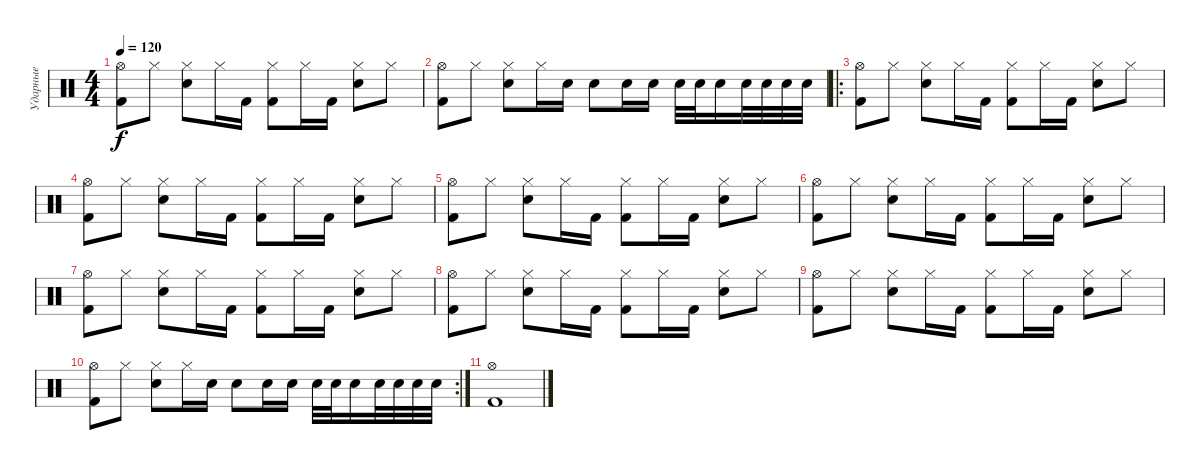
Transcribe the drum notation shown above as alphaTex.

\track ("Ударные" "Ударные") {instrument percussion}
\staff {score}
\articulation defaults
\ts (4 4)
\tempo 120
\clef neutral
\ks aminor
("Hi-Hat (open)" "Kick (hit) 2").8{dy f} "Hi-Hat (closed)".8 ("Hi-Hat (closed)" "Electric Snare (hit)").8 "Hi-Hat (closed)".16 "Kick (hit) 2".16 ("Hi-Hat (closed)" "Kick (hit) 2").8 "Hi-Hat (closed)".16 "Kick (hit) 2".16 ("Hi-Hat (closed)" "Electric Snare (hit)").8 "Hi-Hat (closed)".8 |
("Hi-Hat (open)" "Kick (hit) 2").8 "Hi-Hat (closed)".8 ("Hi-Hat (closed)" "Electric Snare (hit)").8 "Hi-Hat (closed)".16 "Electric Snare (hit)".16 "Electric Snare (hit)".8 "Electric Snare (hit)".16 "Electric Snare (hit)".16 "Electric Snare (hit)".32 "Electric Snare (hit)".32 "Electric Snare (hit)".16 "Electric Snare (hit)".32 "Electric Snare (hit)".32 "Electric Snare (hit)".32 "Electric Snare (hit)".32 |
\ro
("Hi-Hat (open)" "Kick (hit) 2").8 "Hi-Hat (closed)".8 ("Hi-Hat (closed)" "Electric Snare (hit)").8 "Hi-Hat (closed)".16 "Kick (hit) 2".16 ("Hi-Hat (closed)" "Kick (hit) 2").8 "Hi-Hat (closed)".16 "Kick (hit) 2".16 ("Hi-Hat (closed)" "Electric Snare (hit)").8 "Hi-Hat (closed)".8 |
("Hi-Hat (open)" "Kick (hit) 2").8 "Hi-Hat (closed)".8 ("Hi-Hat (closed)" "Electric Snare (hit)").8 "Hi-Hat (closed)".16 "Kick (hit) 2".16 ("Hi-Hat (closed)" "Kick (hit) 2").8 "Hi-Hat (closed)".16 "Kick (hit) 2".16 ("Hi-Hat (closed)" "Electric Snare (hit)").8 "Hi-Hat (closed)".8 |
("Hi-Hat (open)" "Kick (hit) 2").8 "Hi-Hat (closed)".8 ("Hi-Hat (closed)" "Electric Snare (hit)").8 "Hi-Hat (closed)".16 "Kick (hit) 2".16 ("Hi-Hat (closed)" "Kick (hit) 2").8 "Hi-Hat (closed)".16 "Kick (hit) 2".16 ("Hi-Hat (closed)" "Electric Snare (hit)").8 "Hi-Hat (closed)".8 |
("Hi-Hat (open)" "Kick (hit) 2").8 "Hi-Hat (closed)".8 ("Hi-Hat (closed)" "Electric Snare (hit)").8 "Hi-Hat (closed)".16 "Kick (hit) 2".16 ("Hi-Hat (closed)" "Kick (hit) 2").8 "Hi-Hat (closed)".16 "Kick (hit) 2".16 ("Hi-Hat (closed)" "Electric Snare (hit)").8 "Hi-Hat (closed)".8 |
("Hi-Hat (open)" "Kick (hit) 2").8 "Hi-Hat (closed)".8 ("Hi-Hat (closed)" "Electric Snare (hit)").8 "Hi-Hat (closed)".16 "Kick (hit) 2".16 ("Hi-Hat (closed)" "Kick (hit) 2").8 "Hi-Hat (closed)".16 "Kick (hit) 2".16 ("Hi-Hat (closed)" "Electric Snare (hit)").8 "Hi-Hat (closed)".8 |
("Hi-Hat (open)" "Kick (hit) 2").8 "Hi-Hat (closed)".8 ("Hi-Hat (closed)" "Electric Snare (hit)").8 "Hi-Hat (closed)".16 "Kick (hit) 2".16 ("Hi-Hat (closed)" "Kick (hit) 2").8 "Hi-Hat (closed)".16 "Kick (hit) 2".16 ("Hi-Hat (closed)" "Electric Snare (hit)").8 "Hi-Hat (closed)".8 |
("Hi-Hat (open)" "Kick (hit) 2").8 "Hi-Hat (closed)".8 ("Hi-Hat (closed)" "Electric Snare (hit)").8 "Hi-Hat (closed)".16 "Kick (hit) 2".16 ("Hi-Hat (closed)" "Kick (hit) 2").8 "Hi-Hat (closed)".16 "Kick (hit) 2".16 ("Hi-Hat (closed)" "Electric Snare (hit)").8 "Hi-Hat (closed)".8 |
\rc 2
("Hi-Hat (open)" "Kick (hit) 2").8 "Hi-Hat (closed)".8 ("Hi-Hat (closed)" "Electric Snare (hit)").8 "Hi-Hat (closed)".16 "Electric Snare (hit)".16 "Electric Snare (hit)".8 "Electric Snare (hit)".16 "Electric Snare (hit)".16 "Electric Snare (hit)".32 "Electric Snare (hit)".32 "Electric Snare (hit)".16 "Electric Snare (hit)".32 "Electric Snare (hit)".32 "Electric Snare (hit)".32 "Electric Snare (hit)".32 |
("Hi-Hat (open)" "Kick (hit) 2").1
